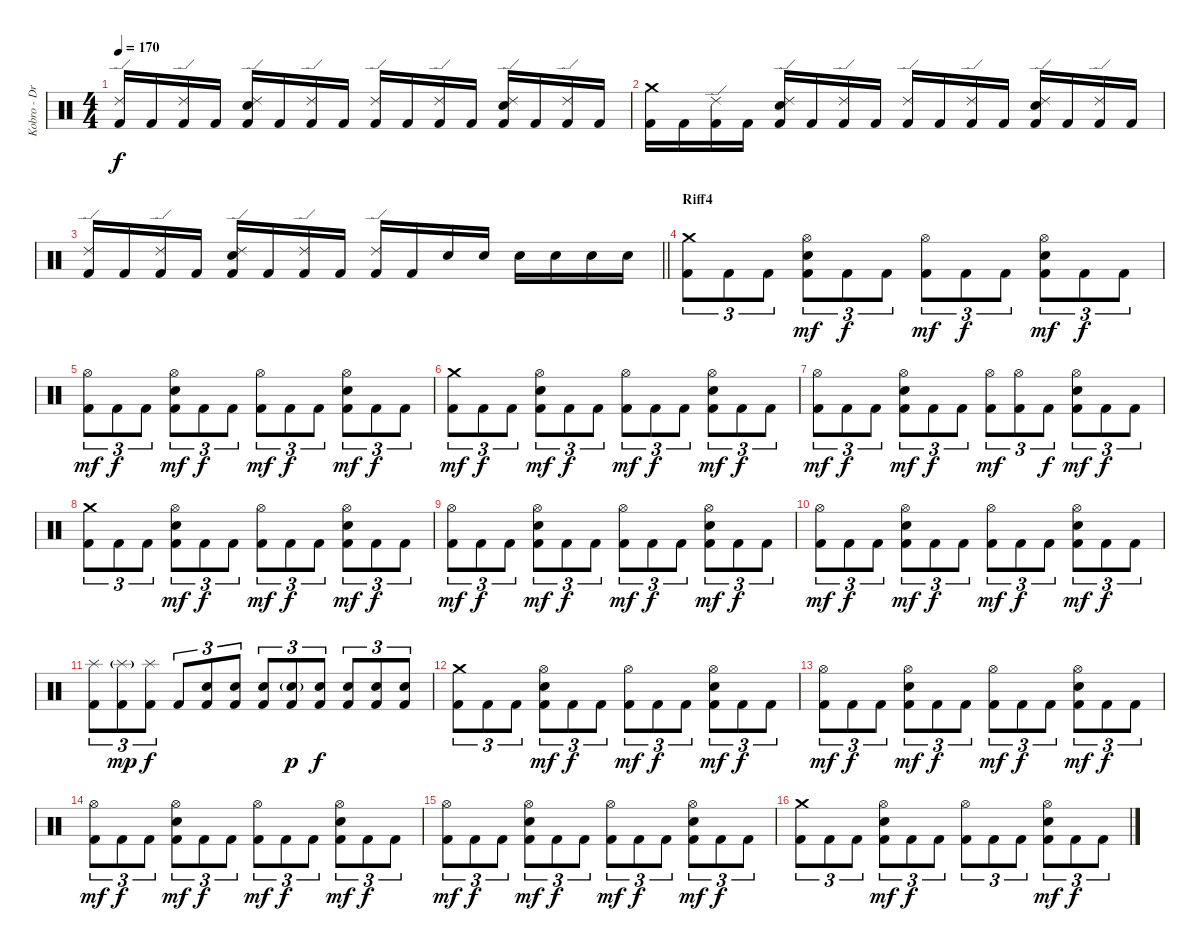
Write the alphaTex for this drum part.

\track ("Kobro - Drums + Percussion" "Kobro - Dr") {instrument percussion}
\staff {score}
\articulation defaults
\ts (4 4)
\tempo 170
\clef neutral
\ks c
("Ride (edge) 2" "Kick (hit) 2").16{dy f} "Kick (hit) 2".16 ("Ride (edge) 2" "Kick (hit) 2").16 "Kick (hit) 2".16 ("Ride (edge) 2" "Electric Snare (hit)" "Kick (hit) 2").16 "Kick (hit) 2".16 ("Ride (edge) 2" "Kick (hit) 2").16 "Kick (hit) 2".16 ("Ride (edge) 2" "Kick (hit) 2").16 "Kick (hit) 2".16 ("Ride (edge) 2" "Kick (hit) 2").16 "Kick (hit) 2".16 ("Ride (edge) 2" "Electric Snare (hit)" "Kick (hit) 2").16 "Kick (hit) 2".16 ("Ride (edge) 2" "Kick (hit) 2").16 "Kick (hit) 2".16 |
("Crash medium (hit)" "Kick (hit) 2").16 "Kick (hit) 2".16 ("Ride (edge) 2" "Kick (hit) 2").16 "Kick (hit) 2".16 ("Ride (edge) 2" "Electric Snare (hit)" "Kick (hit) 2").16 "Kick (hit) 2".16 ("Ride (edge) 2" "Kick (hit) 2").16 "Kick (hit) 2".16 ("Ride (edge) 2" "Kick (hit) 2").16 "Kick (hit) 2".16 ("Ride (edge) 2" "Kick (hit) 2").16 "Kick (hit) 2".16 ("Ride (edge) 2" "Electric Snare (hit)" "Kick (hit) 2").16 "Kick (hit) 2".16 ("Ride (edge) 2" "Kick (hit) 2").16 "Kick (hit) 2".16 |
\barLineRight lightlight
("Ride (edge) 2" "Kick (hit) 2").16 "Kick (hit) 2".16 ("Ride (edge) 2" "Kick (hit) 2").16 "Kick (hit) 2".16 ("Ride (edge) 2" "Electric Snare (hit)" "Kick (hit) 2").16 "Kick (hit) 2".16 ("Ride (edge) 2" "Kick (hit) 2").16 "Kick (hit) 2".16 ("Ride (edge) 2" "Kick (hit) 2").16 "Kick (hit) 2".16 "Electric Snare (hit)".16 "Electric Snare (hit)".16 "Electric Snare (hit)".16 "Electric Snare (hit)".16 "Electric Snare (hit)".16 "Electric Snare (hit)".16 |
\section ("" "Riff4")
("Crash medium (hit)" "Kick (hit) 2").8{tu (3 2)} "Kick (hit) 2".8{tu (3 2)} "Kick (hit) 2".8{tu (3 2)} ("Hi-Hat (open)" "Electric Snare (hit)" "Kick (hit) 2").8{tu (3 2) dy mf} "Kick (hit) 2".8{tu (3 2) dy f} "Kick (hit) 2".8{tu (3 2)} ("Hi-Hat (open)" "Kick (hit) 2").8{tu (3 2) dy mf} "Kick (hit) 2".8{tu (3 2) dy f} "Kick (hit) 2".8{tu (3 2)} ("Hi-Hat (open)" "Electric Snare (hit)" "Kick (hit) 2").8{tu (3 2) dy mf} "Kick (hit) 2".8{tu (3 2) dy f} "Kick (hit) 2".8{tu (3 2)} |
("Hi-Hat (open)" "Kick (hit) 2").8{tu (3 2) dy mf} "Kick (hit) 2".8{tu (3 2) dy f} "Kick (hit) 2".8{tu (3 2)} ("Hi-Hat (open)" "Electric Snare (hit)" "Kick (hit) 2").8{tu (3 2) dy mf} "Kick (hit) 2".8{tu (3 2) dy f} "Kick (hit) 2".8{tu (3 2)} ("Hi-Hat (open)" "Kick (hit) 2").8{tu (3 2) dy mf} "Kick (hit) 2".8{tu (3 2) dy f} "Kick (hit) 2".8{tu (3 2)} ("Hi-Hat (open)" "Electric Snare (hit)" "Kick (hit) 2").8{tu (3 2) dy mf} "Kick (hit) 2".8{tu (3 2) dy f} "Kick (hit) 2".8{tu (3 2)} |
("Crash medium (hit)" "Kick (hit) 2").8{tu (3 2) dy mf} "Kick (hit) 2".8{tu (3 2) dy f} "Kick (hit) 2".8{tu (3 2)} ("Hi-Hat (open)" "Electric Snare (hit)" "Kick (hit) 2").8{tu (3 2) dy mf} "Kick (hit) 2".8{tu (3 2) dy f} "Kick (hit) 2".8{tu (3 2)} ("Hi-Hat (open)" "Kick (hit) 2").8{tu (3 2) dy mf} "Kick (hit) 2".8{tu (3 2) dy f} "Kick (hit) 2".8{tu (3 2)} ("Hi-Hat (open)" "Electric Snare (hit)" "Kick (hit) 2").8{tu (3 2) dy mf} "Kick (hit) 2".8{tu (3 2) dy f} "Kick (hit) 2".8{tu (3 2)} |
("Hi-Hat (open)" "Kick (hit) 2").8{tu (3 2) dy mf} "Kick (hit) 2".8{tu (3 2) dy f} "Kick (hit) 2".8{tu (3 2)} ("Hi-Hat (open)" "Electric Snare (hit)" "Kick (hit) 2").8{tu (3 2) dy mf} "Kick (hit) 2".8{tu (3 2) dy f} "Kick (hit) 2".8{tu (3 2)} ("Hi-Hat (open)" "Kick (hit) 2").8{tu (3 2) dy mf} ("Hi-Hat (open)" "Kick (hit) 2").8{tu (3 2)} "Kick (hit) 2".8{tu (3 2) dy f} ("Hi-Hat (open)" "Electric Snare (hit)" "Kick (hit) 2").8{tu (3 2) dy mf} "Kick (hit) 2".8{tu (3 2) dy f} "Kick (hit) 2".8{tu (3 2)} |
("Crash medium (hit)" "Kick (hit) 2").8{tu (3 2)} "Kick (hit) 2".8{tu (3 2)} "Kick (hit) 2".8{tu (3 2)} ("Hi-Hat (open)" "Electric Snare (hit)" "Kick (hit) 2").8{tu (3 2) dy mf} "Kick (hit) 2".8{tu (3 2) dy f} "Kick (hit) 2".8{tu (3 2)} ("Hi-Hat (open)" "Kick (hit) 2").8{tu (3 2) dy mf} "Kick (hit) 2".8{tu (3 2) dy f} "Kick (hit) 2".8{tu (3 2)} ("Hi-Hat (open)" "Electric Snare (hit)" "Kick (hit) 2").8{tu (3 2) dy mf} "Kick (hit) 2".8{tu (3 2) dy f} "Kick (hit) 2".8{tu (3 2)} |
("Hi-Hat (open)" "Kick (hit) 2").8{tu (3 2) dy mf} "Kick (hit) 2".8{tu (3 2) dy f} "Kick (hit) 2".8{tu (3 2)} ("Hi-Hat (open)" "Electric Snare (hit)" "Kick (hit) 2").8{tu (3 2) dy mf} "Kick (hit) 2".8{tu (3 2) dy f} "Kick (hit) 2".8{tu (3 2)} ("Hi-Hat (open)" "Kick (hit) 2").8{tu (3 2) dy mf} "Kick (hit) 2".8{tu (3 2) dy f} "Kick (hit) 2".8{tu (3 2)} ("Hi-Hat (open)" "Electric Snare (hit)" "Kick (hit) 2").8{tu (3 2) dy mf} "Kick (hit) 2".8{tu (3 2) dy f} "Kick (hit) 2".8{tu (3 2)} |
("Hi-Hat (open)" "Kick (hit) 2").8{tu (3 2) dy mf} "Kick (hit) 2".8{tu (3 2) dy f} "Kick (hit) 2".8{tu (3 2)} ("Hi-Hat (open)" "Electric Snare (hit)" "Kick (hit) 2").8{tu (3 2) dy mf} "Kick (hit) 2".8{tu (3 2) dy f} "Kick (hit) 2".8{tu (3 2)} ("Hi-Hat (open)" "Kick (hit) 2").8{tu (3 2) dy mf} "Kick (hit) 2".8{tu (3 2) dy f} "Kick (hit) 2".8{tu (3 2)} ("Hi-Hat (open)" "Electric Snare (hit)" "Kick (hit) 2").8{tu (3 2) dy mf} "Kick (hit) 2".8{tu (3 2) dy f} "Kick (hit) 2".8{tu (3 2)} |
("Splash (hit)" "Kick (hit) 2").8{tu (3 2)} ("Splash (hit)"{g} "Kick (hit) 2").8{tu (3 2) dy mp} ("Splash (hit)" "Kick (hit) 2").8{tu (3 2) dy f} "Kick (hit) 2".8{tu (3 2)} ("Electric Snare (hit)" "Kick (hit) 2").8{tu (3 2)} ("Electric Snare (hit)" "Kick (hit) 2").8{tu (3 2)} ("Electric Snare (hit)" "Kick (hit) 2").8{tu (3 2)} ("Electric Snare (hit)"{g} "Kick (hit) 2").8{tu (3 2) dy p} ("Electric Snare (hit)" "Kick (hit) 2").8{tu (3 2) dy f} ("Electric Snare (hit)" "Kick (hit) 2").8{tu (3 2)} ("Electric Snare (hit)" "Kick (hit) 2").8{tu (3 2)} ("Electric Snare (hit)" "Kick (hit) 2").8{tu (3 2)} |
("Crash medium (hit)" "Kick (hit) 2").8{tu (3 2)} "Kick (hit) 2".8{tu (3 2)} "Kick (hit) 2".8{tu (3 2)} ("Hi-Hat (open)" "Electric Snare (hit)" "Kick (hit) 2").8{tu (3 2) dy mf} "Kick (hit) 2".8{tu (3 2) dy f} "Kick (hit) 2".8{tu (3 2)} ("Hi-Hat (open)" "Kick (hit) 2").8{tu (3 2) dy mf} "Kick (hit) 2".8{tu (3 2) dy f} "Kick (hit) 2".8{tu (3 2)} ("Hi-Hat (open)" "Electric Snare (hit)" "Kick (hit) 2").8{tu (3 2) dy mf} "Kick (hit) 2".8{tu (3 2) dy f} "Kick (hit) 2".8{tu (3 2)} |
("Hi-Hat (open)" "Kick (hit) 2").8{tu (3 2) dy mf} "Kick (hit) 2".8{tu (3 2) dy f} "Kick (hit) 2".8{tu (3 2)} ("Hi-Hat (open)" "Electric Snare (hit)" "Kick (hit) 2").8{tu (3 2) dy mf} "Kick (hit) 2".8{tu (3 2) dy f} "Kick (hit) 2".8{tu (3 2)} ("Hi-Hat (open)" "Kick (hit) 2").8{tu (3 2) dy mf} "Kick (hit) 2".8{tu (3 2) dy f} "Kick (hit) 2".8{tu (3 2)} ("Hi-Hat (open)" "Electric Snare (hit)" "Kick (hit) 2").8{tu (3 2) dy mf} "Kick (hit) 2".8{tu (3 2) dy f} "Kick (hit) 2".8{tu (3 2)} |
("Hi-Hat (open)" "Kick (hit) 2").8{tu (3 2) dy mf} "Kick (hit) 2".8{tu (3 2) dy f} "Kick (hit) 2".8{tu (3 2)} ("Hi-Hat (open)" "Electric Snare (hit)" "Kick (hit) 2").8{tu (3 2) dy mf} "Kick (hit) 2".8{tu (3 2) dy f} "Kick (hit) 2".8{tu (3 2)} ("Hi-Hat (open)" "Kick (hit) 2").8{tu (3 2) dy mf} "Kick (hit) 2".8{tu (3 2) dy f} "Kick (hit) 2".8{tu (3 2)} ("Hi-Hat (open)" "Electric Snare (hit)" "Kick (hit) 2").8{tu (3 2) dy mf} "Kick (hit) 2".8{tu (3 2) dy f} "Kick (hit) 2".8{tu (3 2)} |
("Hi-Hat (open)" "Kick (hit) 2").8{tu (3 2) dy mf} "Kick (hit) 2".8{tu (3 2) dy f} "Kick (hit) 2".8{tu (3 2)} ("Hi-Hat (open)" "Electric Snare (hit)" "Kick (hit) 2").8{tu (3 2) dy mf} "Kick (hit) 2".8{tu (3 2) dy f} "Kick (hit) 2".8{tu (3 2)} ("Hi-Hat (open)" "Kick (hit) 2").8{tu (3 2) dy mf} "Kick (hit) 2".8{tu (3 2) dy f} "Kick (hit) 2".8{tu (3 2)} ("Hi-Hat (open)" "Electric Snare (hit)" "Kick (hit) 2").8{tu (3 2) dy mf} "Kick (hit) 2".8{tu (3 2) dy f} "Kick (hit) 2".8{tu (3 2)} |
("Crash medium (hit)" "Kick (hit) 2").8{tu (3 2)} "Kick (hit) 2".8{tu (3 2)} "Kick (hit) 2".8{tu (3 2)} ("Hi-Hat (open)" "Electric Snare (hit)" "Kick (hit) 2").8{tu (3 2) dy mf} "Kick (hit) 2".8{tu (3 2) dy f} "Kick (hit) 2".8{tu (3 2)} ("Hi-Hat (open)" "Kick (hit) 2").8{tu (3 2)} "Kick (hit) 2".8{tu (3 2)} "Kick (hit) 2".8{tu (3 2)} ("Hi-Hat (open)" "Electric Snare (hit)" "Kick (hit) 2").8{tu (3 2) dy mf} "Kick (hit) 2".8{tu (3 2) dy f} "Kick (hit) 2".8{tu (3 2)}
